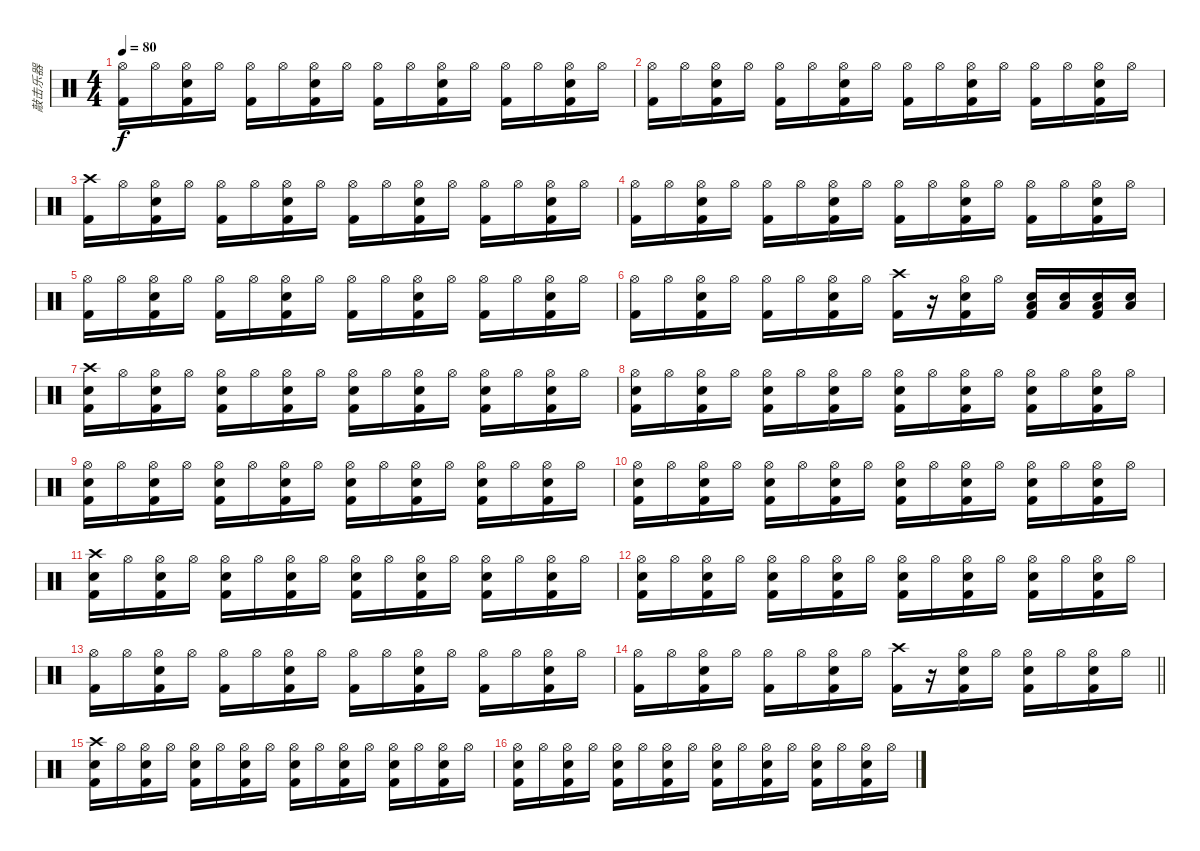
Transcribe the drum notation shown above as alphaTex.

\track ("敲击乐器" "敲击乐器") {instrument percussion}
\staff {score}
\articulation defaults
\ts (4 4)
\tempo 80
\clef neutral
\ks c
("Hi-Hat (open)" "Kick (hit) 2").16{dy f} "Hi-Hat (open)".16 ("Hi-Hat (open)" "Electric Snare (hit)" "Kick (hit) 2").16 "Hi-Hat (open)".16 ("Hi-Hat (open)" "Kick (hit) 2").16 "Hi-Hat (open)".16 ("Hi-Hat (open)" "Electric Snare (hit)" "Kick (hit) 2").16 "Hi-Hat (open)".16 ("Hi-Hat (open)" "Kick (hit) 2").16 "Hi-Hat (open)".16 ("Hi-Hat (open)" "Electric Snare (hit)" "Kick (hit) 2").16 "Hi-Hat (open)".16 ("Hi-Hat (open)" "Kick (hit) 2").16 "Hi-Hat (open)".16 ("Hi-Hat (open)" "Electric Snare (hit)" "Kick (hit) 2").16 "Hi-Hat (open)".16 |
("Hi-Hat (open)" "Kick (hit) 2").16 "Hi-Hat (open)".16 ("Hi-Hat (open)" "Electric Snare (hit)" "Kick (hit) 2").16 "Hi-Hat (open)".16 ("Hi-Hat (open)" "Kick (hit) 2").16 "Hi-Hat (open)".16 ("Hi-Hat (open)" "Electric Snare (hit)" "Kick (hit) 2").16 "Hi-Hat (open)".16 ("Hi-Hat (open)" "Kick (hit) 2").16 "Hi-Hat (open)".16 ("Hi-Hat (open)" "Electric Snare (hit)" "Kick (hit) 2").16 "Hi-Hat (open)".16 ("Hi-Hat (open)" "Kick (hit) 2").16 "Hi-Hat (open)".16 ("Hi-Hat (open)" "Electric Snare (hit)" "Kick (hit) 2").16 "Hi-Hat (open)".16 |
("Crash high (hit)" "Kick (hit) 2").16 "Hi-Hat (open)".16 ("Hi-Hat (open)" "Electric Snare (hit)" "Kick (hit) 2").16 "Hi-Hat (open)".16 ("Hi-Hat (open)" "Kick (hit) 2").16 "Hi-Hat (open)".16 ("Hi-Hat (open)" "Electric Snare (hit)" "Kick (hit) 2").16 "Hi-Hat (open)".16 ("Hi-Hat (open)" "Kick (hit) 2").16 "Hi-Hat (open)".16 ("Hi-Hat (open)" "Electric Snare (hit)" "Kick (hit) 2").16 "Hi-Hat (open)".16 ("Hi-Hat (open)" "Kick (hit) 2").16 "Hi-Hat (open)".16 ("Hi-Hat (open)" "Electric Snare (hit)" "Kick (hit) 2").16 "Hi-Hat (open)".16 |
("Hi-Hat (open)" "Kick (hit) 2").16 "Hi-Hat (open)".16 ("Hi-Hat (open)" "Electric Snare (hit)" "Kick (hit) 2").16 "Hi-Hat (open)".16 ("Hi-Hat (open)" "Kick (hit) 2").16 "Hi-Hat (open)".16 ("Hi-Hat (open)" "Electric Snare (hit)" "Kick (hit) 2").16 "Hi-Hat (open)".16 ("Hi-Hat (open)" "Kick (hit) 2").16 "Hi-Hat (open)".16 ("Hi-Hat (open)" "Electric Snare (hit)" "Kick (hit) 2").16 "Hi-Hat (open)".16 ("Hi-Hat (open)" "Kick (hit) 2").16 "Hi-Hat (open)".16 ("Hi-Hat (open)" "Electric Snare (hit)" "Kick (hit) 2").16 "Hi-Hat (open)".16 |
("Hi-Hat (open)" "Kick (hit) 2").16 "Hi-Hat (open)".16 ("Hi-Hat (open)" "Electric Snare (hit)" "Kick (hit) 2").16 "Hi-Hat (open)".16 ("Hi-Hat (open)" "Kick (hit) 2").16 "Hi-Hat (open)".16 ("Hi-Hat (open)" "Electric Snare (hit)" "Kick (hit) 2").16 "Hi-Hat (open)".16 ("Hi-Hat (open)" "Kick (hit) 2").16 "Hi-Hat (open)".16 ("Hi-Hat (open)" "Electric Snare (hit)" "Kick (hit) 2").16 "Hi-Hat (open)".16 ("Hi-Hat (open)" "Kick (hit) 2").16 "Hi-Hat (open)".16 ("Hi-Hat (open)" "Electric Snare (hit)" "Kick (hit) 2").16 "Hi-Hat (open)".16 |
("Hi-Hat (open)" "Kick (hit) 2").16 "Hi-Hat (open)".16 ("Hi-Hat (open)" "Electric Snare (hit)" "Kick (hit) 2").16 "Hi-Hat (open)".16 ("Hi-Hat (open)" "Kick (hit) 2").16 "Hi-Hat (open)".16 ("Hi-Hat (open)" "Electric Snare (hit)" "Kick (hit) 2").16 "Hi-Hat (open)".16 ("Crash high (hit)" "Kick (hit) 2").16 r.16 ("Hi-Hat (open)" "Electric Snare (hit)" "Kick (hit) 2").16 "Hi-Hat (open)".16 ("Low Floor Tom (hit)" "Electric Snare (hit)" "Kick (hit) 2").16 ("Low Floor Tom (hit)" "Electric Snare (hit)").16 ("Low Floor Tom (hit)" "Electric Snare (hit)" "Kick (hit) 2").16 ("Low Floor Tom (hit)" "Electric Snare (hit)").16 |
("Crash high (hit)" "Electric Snare (hit)" "Kick (hit) 2").16 "Hi-Hat (open)".16 ("Hi-Hat (open)" "Electric Snare (hit)" "Kick (hit) 2").16 "Hi-Hat (open)".16 ("Hi-Hat (open)" "Electric Snare (hit)" "Kick (hit) 2").16 "Hi-Hat (open)".16 ("Hi-Hat (open)" "Electric Snare (hit)" "Kick (hit) 2").16 "Hi-Hat (open)".16 ("Hi-Hat (open)" "Electric Snare (hit)" "Kick (hit) 2").16 "Hi-Hat (open)".16 ("Hi-Hat (open)" "Electric Snare (hit)" "Kick (hit) 2").16 "Hi-Hat (open)".16 ("Hi-Hat (open)" "Electric Snare (hit)" "Kick (hit) 2").16 "Hi-Hat (open)".16 ("Hi-Hat (open)" "Electric Snare (hit)" "Kick (hit) 2").16 "Hi-Hat (open)".16 |
("Hi-Hat (open)" "Electric Snare (hit)" "Kick (hit) 2").16 "Hi-Hat (open)".16 ("Hi-Hat (open)" "Electric Snare (hit)" "Kick (hit) 2").16 "Hi-Hat (open)".16 ("Hi-Hat (open)" "Electric Snare (hit)" "Kick (hit) 2").16 "Hi-Hat (open)".16 ("Hi-Hat (open)" "Electric Snare (hit)" "Kick (hit) 2").16 "Hi-Hat (open)".16 ("Hi-Hat (open)" "Electric Snare (hit)" "Kick (hit) 2").16 "Hi-Hat (open)".16 ("Hi-Hat (open)" "Electric Snare (hit)" "Kick (hit) 2").16 "Hi-Hat (open)".16 ("Hi-Hat (open)" "Electric Snare (hit)" "Kick (hit) 2").16 "Hi-Hat (open)".16 ("Hi-Hat (open)" "Electric Snare (hit)" "Kick (hit) 2").16 "Hi-Hat (open)".16 |
("Hi-Hat (open)" "Electric Snare (hit)" "Kick (hit) 2").16 "Hi-Hat (open)".16 ("Hi-Hat (open)" "Electric Snare (hit)" "Kick (hit) 2").16 "Hi-Hat (open)".16 ("Hi-Hat (open)" "Electric Snare (hit)" "Kick (hit) 2").16 "Hi-Hat (open)".16 ("Hi-Hat (open)" "Electric Snare (hit)" "Kick (hit) 2").16 "Hi-Hat (open)".16 ("Hi-Hat (open)" "Electric Snare (hit)" "Kick (hit) 2").16 "Hi-Hat (open)".16 ("Hi-Hat (open)" "Electric Snare (hit)" "Kick (hit) 2").16 "Hi-Hat (open)".16 ("Hi-Hat (open)" "Electric Snare (hit)" "Kick (hit) 2").16 "Hi-Hat (open)".16 ("Hi-Hat (open)" "Electric Snare (hit)" "Kick (hit) 2").16 "Hi-Hat (open)".16 |
("Hi-Hat (open)" "Electric Snare (hit)" "Kick (hit) 2").16 "Hi-Hat (open)".16 ("Hi-Hat (open)" "Electric Snare (hit)" "Kick (hit) 2").16 "Hi-Hat (open)".16 ("Hi-Hat (open)" "Electric Snare (hit)" "Kick (hit) 2").16 "Hi-Hat (open)".16 ("Hi-Hat (open)" "Electric Snare (hit)" "Kick (hit) 2").16 "Hi-Hat (open)".16 ("Hi-Hat (open)" "Electric Snare (hit)" "Kick (hit) 2").16 "Hi-Hat (open)".16 ("Hi-Hat (open)" "Electric Snare (hit)" "Kick (hit) 2").16 "Hi-Hat (open)".16 ("Hi-Hat (open)" "Electric Snare (hit)" "Kick (hit) 2").16 "Hi-Hat (open)".16 ("Hi-Hat (open)" "Electric Snare (hit)" "Kick (hit) 2").16 "Hi-Hat (open)".16 |
("Crash high (hit)" "Electric Snare (hit)" "Kick (hit) 2").16 "Hi-Hat (open)".16 ("Hi-Hat (open)" "Electric Snare (hit)" "Kick (hit) 2").16 "Hi-Hat (open)".16 ("Hi-Hat (open)" "Electric Snare (hit)" "Kick (hit) 2").16 "Hi-Hat (open)".16 ("Hi-Hat (open)" "Electric Snare (hit)" "Kick (hit) 2").16 "Hi-Hat (open)".16 ("Hi-Hat (open)" "Electric Snare (hit)" "Kick (hit) 2").16 "Hi-Hat (open)".16 ("Hi-Hat (open)" "Electric Snare (hit)" "Kick (hit) 2").16 "Hi-Hat (open)".16 ("Hi-Hat (open)" "Electric Snare (hit)" "Kick (hit) 2").16 "Hi-Hat (open)".16 ("Hi-Hat (open)" "Electric Snare (hit)" "Kick (hit) 2").16 "Hi-Hat (open)".16 |
("Hi-Hat (open)" "Electric Snare (hit)" "Kick (hit) 2").16 "Hi-Hat (open)".16 ("Hi-Hat (open)" "Electric Snare (hit)" "Kick (hit) 2").16 "Hi-Hat (open)".16 ("Hi-Hat (open)" "Electric Snare (hit)" "Kick (hit) 2").16 "Hi-Hat (open)".16 ("Hi-Hat (open)" "Electric Snare (hit)" "Kick (hit) 2").16 "Hi-Hat (open)".16 ("Hi-Hat (open)" "Electric Snare (hit)" "Kick (hit) 2").16 "Hi-Hat (open)".16 ("Hi-Hat (open)" "Electric Snare (hit)" "Kick (hit) 2").16 "Hi-Hat (open)".16 ("Hi-Hat (open)" "Electric Snare (hit)" "Kick (hit) 2").16 "Hi-Hat (open)".16 ("Hi-Hat (open)" "Electric Snare (hit)" "Kick (hit) 2").16 "Hi-Hat (open)".16 |
("Hi-Hat (open)" "Kick (hit) 2").16 "Hi-Hat (open)".16 ("Hi-Hat (open)" "Electric Snare (hit)" "Kick (hit) 2").16 "Hi-Hat (open)".16 ("Hi-Hat (open)" "Kick (hit) 2").16 "Hi-Hat (open)".16 ("Hi-Hat (open)" "Electric Snare (hit)" "Kick (hit) 2").16 "Hi-Hat (open)".16 ("Hi-Hat (open)" "Kick (hit) 2").16 "Hi-Hat (open)".16 ("Hi-Hat (open)" "Electric Snare (hit)" "Kick (hit) 2").16 "Hi-Hat (open)".16 ("Hi-Hat (open)" "Kick (hit) 2").16 "Hi-Hat (open)".16 ("Hi-Hat (open)" "Electric Snare (hit)" "Kick (hit) 2").16 "Hi-Hat (open)".16 |
\barLineRight lightlight
("Hi-Hat (open)" "Kick (hit) 2").16 "Hi-Hat (open)".16 ("Hi-Hat (open)" "Electric Snare (hit)" "Kick (hit) 2").16 "Hi-Hat (open)".16 ("Hi-Hat (open)" "Kick (hit) 2").16 "Hi-Hat (open)".16 ("Hi-Hat (open)" "Electric Snare (hit)" "Kick (hit) 2").16 "Hi-Hat (open)".16 ("Crash high (hit)" "Kick (hit) 2").16 r.16 ("Hi-Hat (open)" "Electric Snare (hit)" "Kick (hit) 2").16 "Hi-Hat (open)".16 ("Hi-Hat (open)" "Electric Snare (hit)" "Kick (hit) 2").16 "Hi-Hat (open)".16 ("Hi-Hat (open)" "Electric Snare (hit)" "Kick (hit) 2").16 "Hi-Hat (open)".16 |
("Crash high (hit)" "Electric Snare (hit)" "Kick (hit) 2").16 "Hi-Hat (open)".16 ("Hi-Hat (open)" "Electric Snare (hit)" "Kick (hit) 2").16 "Hi-Hat (open)".16 ("Hi-Hat (open)" "Electric Snare (hit)" "Kick (hit) 2").16 "Hi-Hat (open)".16 ("Hi-Hat (open)" "Electric Snare (hit)" "Kick (hit) 2").16 "Hi-Hat (open)".16 ("Hi-Hat (open)" "Electric Snare (hit)" "Kick (hit) 2").16 "Hi-Hat (open)".16 ("Hi-Hat (open)" "Electric Snare (hit)" "Kick (hit) 2").16 "Hi-Hat (open)".16 ("Hi-Hat (open)" "Electric Snare (hit)" "Kick (hit) 2").16 "Hi-Hat (open)".16 ("Hi-Hat (open)" "Electric Snare (hit)" "Kick (hit) 2").16 "Hi-Hat (open)".16 |
("Hi-Hat (open)" "Electric Snare (hit)" "Kick (hit) 2").16 "Hi-Hat (open)".16 ("Hi-Hat (open)" "Electric Snare (hit)" "Kick (hit) 2").16 "Hi-Hat (open)".16 ("Hi-Hat (open)" "Electric Snare (hit)" "Kick (hit) 2").16 "Hi-Hat (open)".16 ("Hi-Hat (open)" "Electric Snare (hit)" "Kick (hit) 2").16 "Hi-Hat (open)".16 ("Hi-Hat (open)" "Electric Snare (hit)" "Kick (hit) 2").16 "Hi-Hat (open)".16 ("Hi-Hat (open)" "Electric Snare (hit)" "Kick (hit) 2").16 "Hi-Hat (open)".16 ("Hi-Hat (open)" "Electric Snare (hit)" "Kick (hit) 2").16 "Hi-Hat (open)".16 ("Hi-Hat (open)" "Electric Snare (hit)" "Kick (hit) 2").16 "Hi-Hat (open)".16
